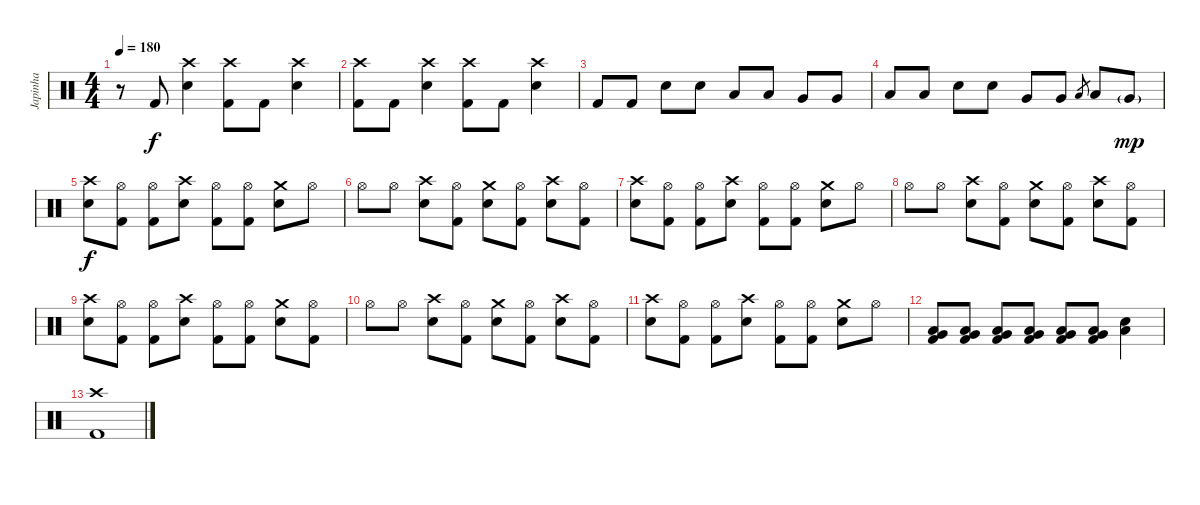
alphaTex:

\track ("Japinha" "Japinha") {instrument percussion}
\staff {score}
\articulation defaults
\ts (4 4)
\tempo 180
\clef neutral
\ks c
r.8{dy mp} "Kick (hit) 2".8{dy f} ("Snare (hit) 2" "Crash high (hit)").4 ("Kick (hit) 2" "Crash high (hit)").8 "Kick (hit) 2".8 ("Snare (hit) 2" "Crash high (hit)").4 |
("Kick (hit) 2" "Crash high (hit)").8 "Kick (hit) 2".8 ("Snare (hit) 2" "Crash high (hit)").4 ("Kick (hit) 2" "Crash high (hit)").8 "Kick (hit) 2".8 ("Snare (hit) 2" "Crash high (hit)").4 |
"Kick (hit) 2".8 "Kick (hit) 2".8 "Snare (hit) 2".8 "Snare (hit) 2".8 "Low Tom (hit)".8 "Low Tom (hit)".8 "Very Low Tom (hit)".8 "Very Low Tom (hit)".8 |
"Low Tom (hit)".8 "Low Tom (hit)".8 "Snare (hit) 2".8 "Snare (hit) 2".8 "Very Low Tom (hit)".8 "Very Low Tom (hit)".8 "Low Tom (hit)".8{gr} "Low Tom (hit)".8 "Very Low Tom (hit)"{g}.8{dy mp} |
("Snare (hit) 2" "Crash high (hit)").8{dy f} ("Kick (hit) 2" "Hi-Hat (open)").8 ("Kick (hit) 2" "Hi-Hat (open)").8 ("Snare (hit) 2" "Crash high (hit)").8 ("Kick (hit) 2" "Hi-Hat (open)").8 ("Kick (hit) 2" "Hi-Hat (open)").8 ("Snare (hit) 2" "Crash medium (hit)").8 "Hi-Hat (open)".8 |
"Hi-Hat (open)".8 "Hi-Hat (open)".8 ("Snare (hit) 2" "Crash high (hit)").8 ("Kick (hit) 2" "Hi-Hat (open)").8 ("Snare (hit) 2" "Crash medium (hit)").8 ("Kick (hit) 2" "Hi-Hat (open)").8 ("Snare (hit) 2" "Crash high (hit)").8 ("Kick (hit) 2" "Hi-Hat (open)").8 |
("Snare (hit) 2" "Crash high (hit)").8 ("Kick (hit) 2" "Hi-Hat (open)").8 ("Kick (hit) 2" "Hi-Hat (open)").8 ("Snare (hit) 2" "Crash high (hit)").8 ("Kick (hit) 2" "Hi-Hat (open)").8 ("Kick (hit) 2" "Hi-Hat (open)").8 ("Snare (hit) 2" "Crash medium (hit)").8 "Hi-Hat (open)".8 |
"Hi-Hat (open)".8 "Hi-Hat (open)".8 ("Snare (hit) 2" "Crash high (hit)").8 ("Kick (hit) 2" "Hi-Hat (open)").8 ("Snare (hit) 2" "Crash medium (hit)").8 ("Kick (hit) 2" "Hi-Hat (open)").8 ("Snare (hit) 2" "Crash high (hit)").8 ("Kick (hit) 2" "Hi-Hat (open)").8 |
("Snare (hit) 2" "Crash high (hit)").8 ("Kick (hit) 2" "Hi-Hat (open)").8 ("Kick (hit) 2" "Hi-Hat (open)").8 ("Snare (hit) 2" "Crash high (hit)").8 ("Kick (hit) 2" "Hi-Hat (open)").8 ("Kick (hit) 2" "Hi-Hat (open)").8 ("Snare (hit) 2" "Crash medium (hit)").8 ("Kick (hit) 2" "Hi-Hat (open)").8 |
"Hi-Hat (open)".8 "Hi-Hat (open)".8 ("Snare (hit) 2" "Crash high (hit)").8 ("Kick (hit) 2" "Hi-Hat (open)").8 ("Snare (hit) 2" "Crash medium (hit)").8 ("Kick (hit) 2" "Hi-Hat (open)").8 ("Snare (hit) 2" "Crash high (hit)").8 ("Kick (hit) 2" "Hi-Hat (open)").8 |
("Snare (hit) 2" "Crash high (hit)").8 ("Kick (hit) 2" "Hi-Hat (open)").8 ("Kick (hit) 2" "Hi-Hat (open)").8 ("Snare (hit) 2" "Crash high (hit)").8 ("Kick (hit) 2" "Hi-Hat (open)").8 ("Kick (hit) 2" "Hi-Hat (open)").8 ("Snare (hit) 2" "Crash medium (hit)").8 "Hi-Hat (open)".8 |
("Kick (hit) 2" "Low Floor Tom (hit)" "Very Low Tom (hit)").8 ("Kick (hit) 2" "Low Floor Tom (hit)" "Very Low Tom (hit)").8 ("Kick (hit) 2" "Low Floor Tom (hit)" "Very Low Tom (hit)").8 ("Kick (hit) 2" "Low Floor Tom (hit)" "Very Low Tom (hit)").8 ("Kick (hit) 2" "Low Floor Tom (hit)" "Very Low Tom (hit)").8 ("Kick (hit) 2" "Low Floor Tom (hit)" "Very Low Tom (hit)").8 ("Snare (hit) 2" "Low Floor Tom (hit)").4 |
("Crash high (hit)" "Kick (hit) 2").1
